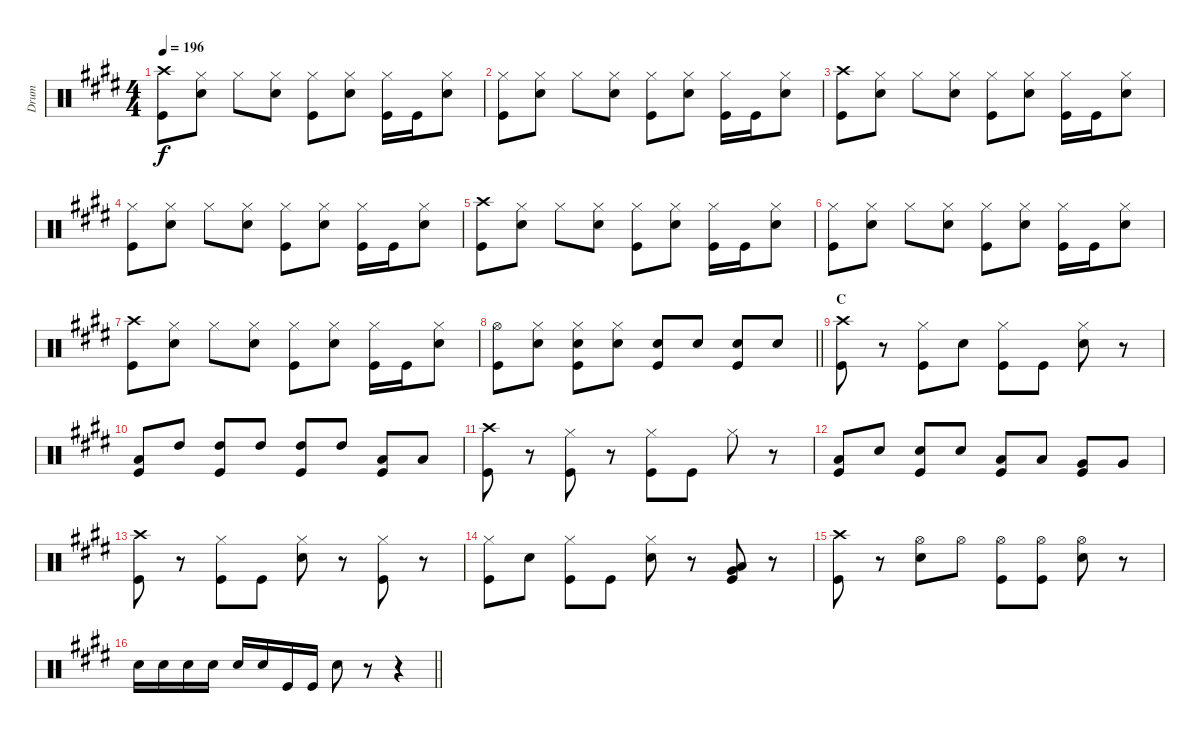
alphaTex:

\track ("Drum" "Drum") {instrument percussion}
\staff {score}
\articulation defaults
\ts (4 4)
\tempo 196
\clef neutral
\ks e
("Crash high (hit)" "Kick (hit)").8{dy f} ("Hi-Hat (closed)" "Snare (hit) 2").8 "Hi-Hat (closed)".8 ("Hi-Hat (closed)" "Snare (hit) 2").8 ("Hi-Hat (closed)" "Kick (hit)").8 ("Hi-Hat (closed)" "Snare (hit) 2").8 ("Hi-Hat (closed)" "Kick (hit)").16 "Kick (hit)".16 ("Hi-Hat (closed)" "Snare (hit) 2").8 |
("Hi-Hat (closed)" "Kick (hit)").8 ("Hi-Hat (closed)" "Snare (hit) 2").8 "Hi-Hat (closed)".8 ("Hi-Hat (closed)" "Snare (hit) 2").8 ("Hi-Hat (closed)" "Kick (hit)").8 ("Hi-Hat (closed)" "Snare (hit) 2").8 ("Hi-Hat (closed)" "Kick (hit)").16 "Kick (hit)".16 ("Hi-Hat (closed)" "Snare (hit) 2").8 |
("Crash high (hit)" "Kick (hit)").8 ("Hi-Hat (closed)" "Snare (hit) 2").8 "Hi-Hat (closed)".8 ("Hi-Hat (closed)" "Snare (hit) 2").8 ("Hi-Hat (closed)" "Kick (hit)").8 ("Hi-Hat (closed)" "Snare (hit) 2").8 ("Hi-Hat (closed)" "Kick (hit)").16 "Kick (hit)".16 ("Hi-Hat (closed)" "Snare (hit) 2").8 |
("Hi-Hat (closed)" "Kick (hit)").8 ("Hi-Hat (closed)" "Snare (hit) 2").8 "Hi-Hat (closed)".8 ("Hi-Hat (closed)" "Snare (hit) 2").8 ("Hi-Hat (closed)" "Kick (hit)").8 ("Hi-Hat (closed)" "Snare (hit) 2").8 ("Hi-Hat (closed)" "Kick (hit)").16 "Kick (hit)".16 ("Hi-Hat (closed)" "Snare (hit) 2").8 |
("Crash high (hit)" "Kick (hit)").8 ("Hi-Hat (closed)" "Snare (hit) 2").8 "Hi-Hat (closed)".8 ("Hi-Hat (closed)" "Snare (hit) 2").8 ("Hi-Hat (closed)" "Kick (hit)").8 ("Hi-Hat (closed)" "Snare (hit) 2").8 ("Hi-Hat (closed)" "Kick (hit)").16 "Kick (hit)".16 ("Hi-Hat (closed)" "Snare (hit) 2").8 |
("Hi-Hat (closed)" "Kick (hit)").8 ("Hi-Hat (closed)" "Snare (hit) 2").8 "Hi-Hat (closed)".8 ("Hi-Hat (closed)" "Snare (hit) 2").8 ("Hi-Hat (closed)" "Kick (hit)").8 ("Hi-Hat (closed)" "Snare (hit) 2").8 ("Hi-Hat (closed)" "Kick (hit)").16 "Kick (hit)".16 ("Hi-Hat (closed)" "Snare (hit) 2").8 |
("Crash high (hit)" "Kick (hit)").8 ("Hi-Hat (closed)" "Snare (hit) 2").8 "Hi-Hat (closed)".8 ("Hi-Hat (closed)" "Snare (hit) 2").8 ("Hi-Hat (closed)" "Kick (hit)").8 ("Hi-Hat (closed)" "Snare (hit) 2").8 ("Hi-Hat (closed)" "Kick (hit)").16 "Kick (hit)".16 ("Hi-Hat (closed)" "Snare (hit) 2").8 |
\barLineRight lightlight
("Hi-Hat (open)" "Kick (hit)").8 ("Hi-Hat (closed)" "Snare (hit) 2").8 ("Hi-Hat (closed)" "Snare (hit) 2" "Kick (hit)").8 ("Hi-Hat (closed)" "Snare (hit) 2").8 ("Snare (hit) 2" "Kick (hit)").8 "Snare (hit) 2".8 ("Snare (hit) 2" "Kick (hit)").8 "Snare (hit) 2".8 |
\section ("" "C")
("Crash high (hit)" "Kick (hit)").8 r.8 ("Hi-Hat (closed)" "Kick (hit)").8 "Snare (hit) 2".8 ("Hi-Hat (closed)" "Kick (hit)").8 "Kick (hit)".8 ("Hi-Hat (closed)" "Snare (hit) 2").8 r.8 |
("Low Tom (hit)" "Kick (hit)").8 "High Tom (hit)".8 ("High Tom (hit)" "Kick (hit)").8 "High Tom (hit)".8 ("High Tom (hit)" "Kick (hit)").8 "High Tom (hit)".8 ("Low Tom (hit)" "Kick (hit)").8 "Low Tom (hit)".8 |
("Crash high (hit)" "Kick (hit)").8 r.8 ("Hi-Hat (closed)" "Kick (hit)").8 r.8 ("Hi-Hat (closed)" "Kick (hit)").8 "Kick (hit)".8 "Hi-Hat (closed)".8 r.8 |
("Low Tom (hit)" "Kick (hit)").8 "Snare (hit) 2".8 ("Snare (hit) 2" "Kick (hit)").8 "Snare (hit) 2".8 ("Low Tom (hit)" "Kick (hit)").8 "Low Tom (hit)".8 ("Very Low Tom (hit)" "Kick (hit)").8 "Very Low Tom (hit)".8 |
("Crash high (hit)" "Kick (hit)").8 r.8 ("Hi-Hat (closed)" "Kick (hit)").8 "Kick (hit)".8 ("Hi-Hat (closed)" "Snare (hit) 2").8 r.8 ("Hi-Hat (closed)" "Kick (hit)").8 r.8 |
("Hi-Hat (closed)" "Kick (hit)").8 "Snare (hit) 2".8 ("Hi-Hat (closed)" "Kick (hit)").8 "Kick (hit)".8 ("Hi-Hat (closed)" "Snare (hit) 2").8 r.8 ("Low Tom (hit)" "Very Low Tom (hit)" "Kick (hit)").8 r.8 |
("Crash high (hit)" "Kick (hit)").8 r.8 ("Hi-Hat (open)" "Snare (hit) 2").8 "Hi-Hat (open)".8 ("Hi-Hat (open)" "Kick (hit)").8 ("Hi-Hat (open)" "Kick (hit)").8 ("Hi-Hat (open)" "Snare (hit) 2").8 r.8 |
\barLineRight lightlight "Snare (hit) 2".16 "Snare (hit) 2".16 "Snare (hit) 2".16 "Snare (hit) 2".16 "Snare (hit) 2".16 "Snare (hit) 2".16 "Kick (hit)".16 "Kick (hit)".16 "Snare (hit) 2".8
r.8 r.4
